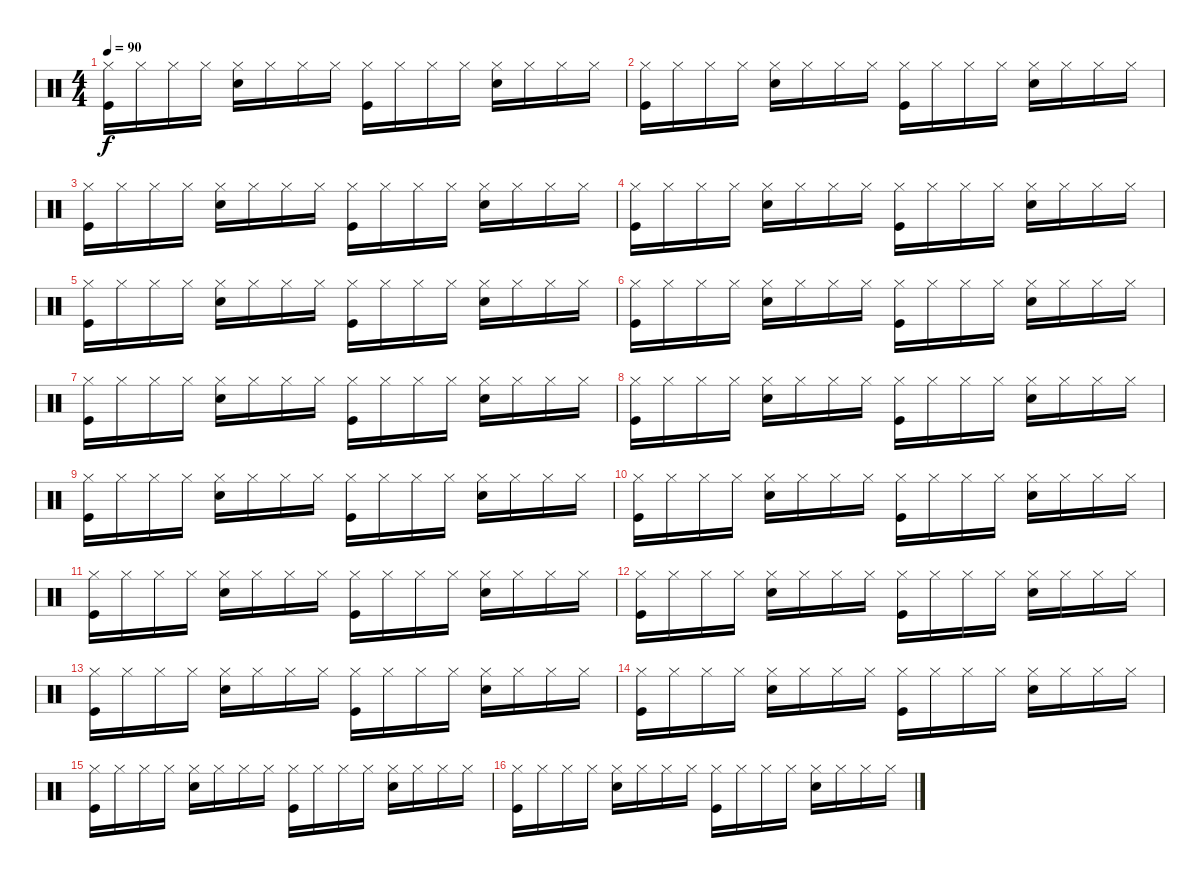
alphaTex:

\track "" {instrument percussion}
\staff {score}
\articulation defaults
\ts (4 4)
\tempo 90
\clef neutral
\ks c
("Hi-Hat (closed)" "Kick (hit)").16{dy f} "Hi-Hat (closed)".16 "Hi-Hat (closed)".16 "Hi-Hat (closed)".16 ("Snare (hit) 2" "Hi-Hat (closed)").16 "Hi-Hat (closed)".16 "Hi-Hat (closed)".16 "Hi-Hat (closed)".16 ("Kick (hit)" "Hi-Hat (closed)").16 "Hi-Hat (closed)".16 "Hi-Hat (closed)".16 "Hi-Hat (closed)".16 ("Hi-Hat (closed)" "Snare (hit) 2").16 "Hi-Hat (closed)".16 "Hi-Hat (closed)".16 "Hi-Hat (closed)".16 |
("Kick (hit)" "Hi-Hat (closed)").16 "Hi-Hat (closed)".16 "Hi-Hat (closed)".16 "Hi-Hat (closed)".16 ("Snare (hit) 2" "Hi-Hat (closed)").16 "Hi-Hat (closed)".16 "Hi-Hat (closed)".16 "Hi-Hat (closed)".16 ("Hi-Hat (closed)" "Kick (hit)").16 "Hi-Hat (closed)".16 "Hi-Hat (closed)".16 "Hi-Hat (closed)".16 ("Snare (hit) 2" "Hi-Hat (closed)").16 "Hi-Hat (closed)".16 "Hi-Hat (closed)".16 "Hi-Hat (closed)".16 |
("Kick (hit)" "Hi-Hat (closed)").16 "Hi-Hat (closed)".16 "Hi-Hat (closed)".16 "Hi-Hat (closed)".16 ("Hi-Hat (closed)" "Snare (hit) 2").16 "Hi-Hat (closed)".16 "Hi-Hat (closed)".16 "Hi-Hat (closed)".16 ("Kick (hit)" "Hi-Hat (closed)").16 "Hi-Hat (closed)".16 "Hi-Hat (closed)".16 "Hi-Hat (closed)".16 ("Snare (hit) 2" "Hi-Hat (closed)").16 "Hi-Hat (closed)".16 "Hi-Hat (closed)".16 "Hi-Hat (closed)".16 |
("Hi-Hat (closed)" "Kick (hit)").16 "Hi-Hat (closed)".16 "Hi-Hat (closed)".16 "Hi-Hat (closed)".16 ("Snare (hit) 2" "Hi-Hat (closed)").16 "Hi-Hat (closed)".16 "Hi-Hat (closed)".16 "Hi-Hat (closed)".16 ("Kick (hit)" "Hi-Hat (closed)").16 "Hi-Hat (closed)".16 "Hi-Hat (closed)".16 "Hi-Hat (closed)".16 ("Hi-Hat (closed)" "Snare (hit) 2").16 "Hi-Hat (closed)".16 "Hi-Hat (closed)".16 "Hi-Hat (closed)".16 |
("Kick (hit)" "Hi-Hat (closed)").16 "Hi-Hat (closed)".16 "Hi-Hat (closed)".16 "Hi-Hat (closed)".16 ("Snare (hit) 2" "Hi-Hat (closed)").16 "Hi-Hat (closed)".16 "Hi-Hat (closed)".16 "Hi-Hat (closed)".16 ("Hi-Hat (closed)" "Kick (hit)").16 "Hi-Hat (closed)".16 "Hi-Hat (closed)".16 "Hi-Hat (closed)".16 ("Snare (hit) 2" "Hi-Hat (closed)").16 "Hi-Hat (closed)".16 "Hi-Hat (closed)".16 "Hi-Hat (closed)".16 |
("Kick (hit)" "Hi-Hat (closed)").16 "Hi-Hat (closed)".16 "Hi-Hat (closed)".16 "Hi-Hat (closed)".16 ("Hi-Hat (closed)" "Snare (hit) 2").16 "Hi-Hat (closed)".16 "Hi-Hat (closed)".16 "Hi-Hat (closed)".16 ("Kick (hit)" "Hi-Hat (closed)").16 "Hi-Hat (closed)".16 "Hi-Hat (closed)".16 "Hi-Hat (closed)".16 ("Snare (hit) 2" "Hi-Hat (closed)").16 "Hi-Hat (closed)".16 "Hi-Hat (closed)".16 "Hi-Hat (closed)".16 |
("Hi-Hat (closed)" "Kick (hit)").16 "Hi-Hat (closed)".16 "Hi-Hat (closed)".16 "Hi-Hat (closed)".16 ("Snare (hit) 2" "Hi-Hat (closed)").16 "Hi-Hat (closed)".16 "Hi-Hat (closed)".16 "Hi-Hat (closed)".16 ("Kick (hit)" "Hi-Hat (closed)").16 "Hi-Hat (closed)".16 "Hi-Hat (closed)".16 "Hi-Hat (closed)".16 ("Hi-Hat (closed)" "Snare (hit) 2").16 "Hi-Hat (closed)".16 "Hi-Hat (closed)".16 "Hi-Hat (closed)".16 |
("Kick (hit)" "Hi-Hat (closed)").16 "Hi-Hat (closed)".16 "Hi-Hat (closed)".16 "Hi-Hat (closed)".16 ("Snare (hit) 2" "Hi-Hat (closed)").16 "Hi-Hat (closed)".16 "Hi-Hat (closed)".16 "Hi-Hat (closed)".16 ("Hi-Hat (closed)" "Kick (hit)").16 "Hi-Hat (closed)".16 "Hi-Hat (closed)".16 "Hi-Hat (closed)".16 ("Snare (hit) 2" "Hi-Hat (closed)").16 "Hi-Hat (closed)".16 "Hi-Hat (closed)".16 "Hi-Hat (closed)".16 |
("Kick (hit)" "Hi-Hat (closed)").16 "Hi-Hat (closed)".16 "Hi-Hat (closed)".16 "Hi-Hat (closed)".16 ("Hi-Hat (closed)" "Snare (hit) 2").16 "Hi-Hat (closed)".16 "Hi-Hat (closed)".16 "Hi-Hat (closed)".16 ("Kick (hit)" "Hi-Hat (closed)").16 "Hi-Hat (closed)".16 "Hi-Hat (closed)".16 "Hi-Hat (closed)".16 ("Snare (hit) 2" "Hi-Hat (closed)").16 "Hi-Hat (closed)".16 "Hi-Hat (closed)".16 "Hi-Hat (closed)".16 |
("Kick (hit)" "Hi-Hat (closed)").16 "Hi-Hat (closed)".16 "Hi-Hat (closed)".16 "Hi-Hat (closed)".16 ("Hi-Hat (closed)" "Snare (hit) 2").16 "Hi-Hat (closed)".16 "Hi-Hat (closed)".16 "Hi-Hat (closed)".16 ("Kick (hit)" "Hi-Hat (closed)").16 "Hi-Hat (closed)".16 "Hi-Hat (closed)".16 "Hi-Hat (closed)".16 ("Snare (hit) 2" "Hi-Hat (closed)").16 "Hi-Hat (closed)".16 "Hi-Hat (closed)".16 "Hi-Hat (closed)".16 |
("Hi-Hat (closed)" "Kick (hit)").16 "Hi-Hat (closed)".16 "Hi-Hat (closed)".16 "Hi-Hat (closed)".16 ("Snare (hit) 2" "Hi-Hat (closed)").16 "Hi-Hat (closed)".16 "Hi-Hat (closed)".16 "Hi-Hat (closed)".16 ("Kick (hit)" "Hi-Hat (closed)").16 "Hi-Hat (closed)".16 "Hi-Hat (closed)".16 "Hi-Hat (closed)".16 ("Hi-Hat (closed)" "Snare (hit) 2").16 "Hi-Hat (closed)".16 "Hi-Hat (closed)".16 "Hi-Hat (closed)".16 |
("Kick (hit)" "Hi-Hat (closed)").16 "Hi-Hat (closed)".16 "Hi-Hat (closed)".16 "Hi-Hat (closed)".16 ("Snare (hit) 2" "Hi-Hat (closed)").16 "Hi-Hat (closed)".16 "Hi-Hat (closed)".16 "Hi-Hat (closed)".16 ("Hi-Hat (closed)" "Kick (hit)").16 "Hi-Hat (closed)".16 "Hi-Hat (closed)".16 "Hi-Hat (closed)".16 ("Snare (hit) 2" "Hi-Hat (closed)").16 "Hi-Hat (closed)".16 "Hi-Hat (closed)".16 "Hi-Hat (closed)".16 |
("Kick (hit)" "Hi-Hat (closed)").16 "Hi-Hat (closed)".16 "Hi-Hat (closed)".16 "Hi-Hat (closed)".16 ("Hi-Hat (closed)" "Snare (hit) 2").16 "Hi-Hat (closed)".16 "Hi-Hat (closed)".16 "Hi-Hat (closed)".16 ("Kick (hit)" "Hi-Hat (closed)").16 "Hi-Hat (closed)".16 "Hi-Hat (closed)".16 "Hi-Hat (closed)".16 ("Snare (hit) 2" "Hi-Hat (closed)").16 "Hi-Hat (closed)".16 "Hi-Hat (closed)".16 "Hi-Hat (closed)".16 |
("Kick (hit)" "Hi-Hat (closed)").16 "Hi-Hat (closed)".16 "Hi-Hat (closed)".16 "Hi-Hat (closed)".16 ("Hi-Hat (closed)" "Snare (hit) 2").16 "Hi-Hat (closed)".16 "Hi-Hat (closed)".16 "Hi-Hat (closed)".16 ("Hi-Hat (closed)" "Kick (hit)").16 "Hi-Hat (closed)".16 "Hi-Hat (closed)".16 "Hi-Hat (closed)".16 ("Snare (hit) 2" "Hi-Hat (closed)").16 "Hi-Hat (closed)".16 "Hi-Hat (closed)".16 "Hi-Hat (closed)".16 |
("Hi-Hat (closed)" "Kick (hit)").16 "Hi-Hat (closed)".16 "Hi-Hat (closed)".16 "Hi-Hat (closed)".16 ("Hi-Hat (closed)" "Snare (hit) 2").16 "Hi-Hat (closed)".16 "Hi-Hat (closed)".16 "Hi-Hat (closed)".16 ("Kick (hit)" "Hi-Hat (closed)").16 "Hi-Hat (closed)".16 "Hi-Hat (closed)".16 "Hi-Hat (closed)".16 ("Hi-Hat (closed)" "Snare (hit) 2").16 "Hi-Hat (closed)".16 "Hi-Hat (closed)".16 "Hi-Hat (closed)".16 |
("Hi-Hat (closed)" "Kick (hit)").16 "Hi-Hat (closed)".16 "Hi-Hat (closed)".16 "Hi-Hat (closed)".16 ("Snare (hit) 2" "Hi-Hat (closed)").16 "Hi-Hat (closed)".16 "Hi-Hat (closed)".16 "Hi-Hat (closed)".16 ("Hi-Hat (closed)" "Kick (hit)").16 "Hi-Hat (closed)".16 "Hi-Hat (closed)".16 "Hi-Hat (closed)".16 ("Hi-Hat (closed)" "Snare (hit) 2").16 "Hi-Hat (closed)".16 "Hi-Hat (closed)".16 "Hi-Hat (closed)".16
